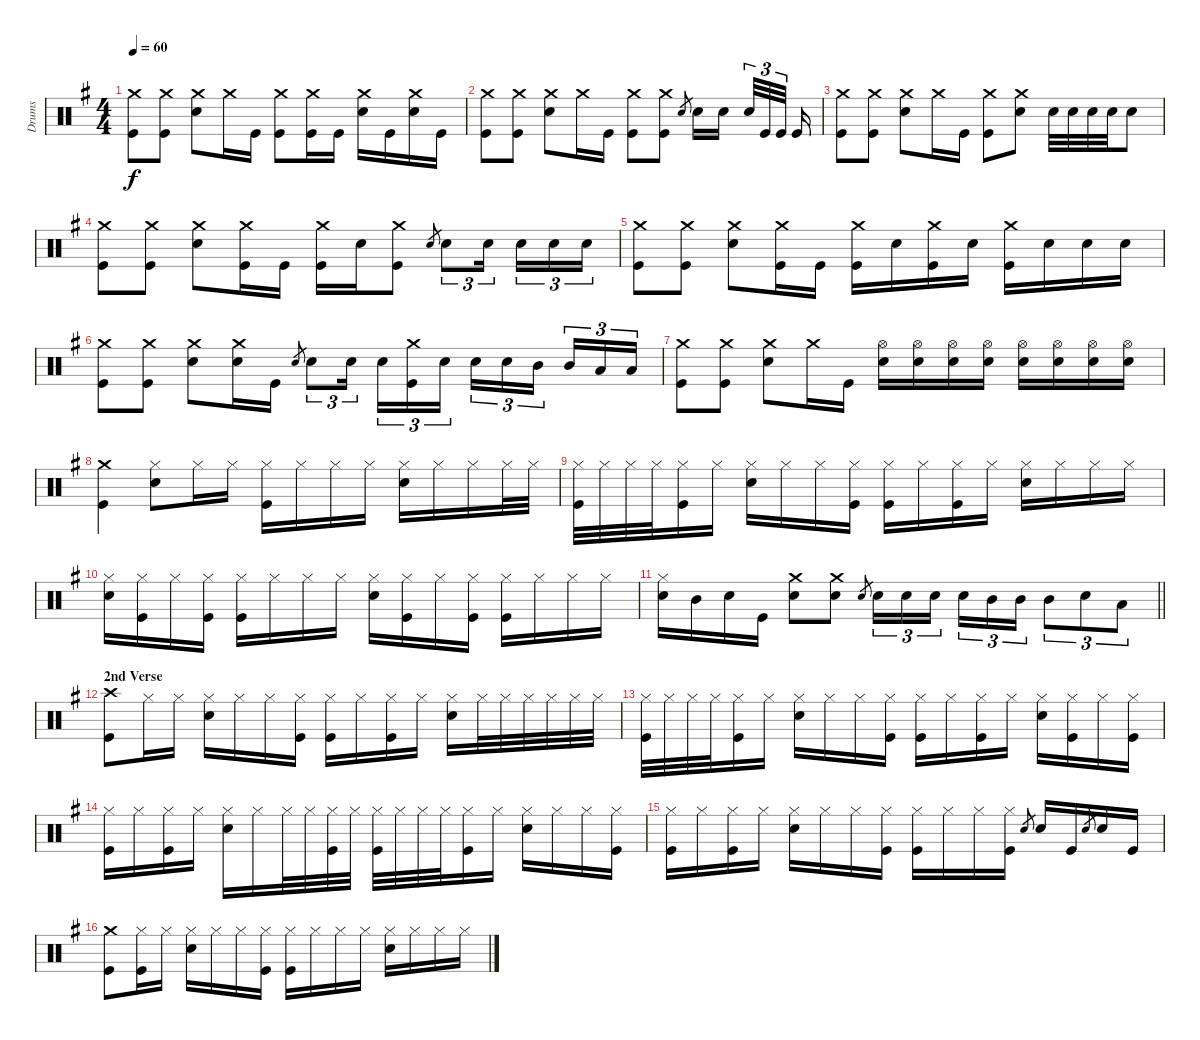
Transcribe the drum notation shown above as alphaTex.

\track ("Drums" "Drums") {instrument percussion}
\staff {score}
\articulation defaults
\ts (4 4)
\tempo 60
\clef neutral
\ks g
("Kick (hit)" "Crash medium (hit)").8{dy f} ("Kick (hit)" "Crash medium (hit)").8 ("Electric Snare (hit)" "Crash medium (hit)").8 "Crash medium (hit)".16 "Kick (hit)".16 ("Kick (hit)" "Crash medium (hit)").8 ("Kick (hit)" "Crash medium (hit)").16 "Kick (hit)".16 ("Electric Snare (hit)" "Crash medium (hit)").16 "Kick (hit)".16 ("Electric Snare (hit)" "Crash medium (hit)").16 "Kick (hit)".16 |
("Kick (hit)" "Crash medium (hit)").8 ("Kick (hit)" "Crash medium (hit)").8 ("Electric Snare (hit)" "Crash medium (hit)").8 "Crash medium (hit)".16 "Kick (hit)".16 ("Kick (hit)" "Crash medium (hit)").8 ("Kick (hit)" "Crash medium (hit)").8 "Electric Snare (hit)".8{gr} "Electric Snare (hit)".16 "Electric Snare (hit)".16{beam splitsecondary} "Electric Snare (hit)".32{tu (3 2)} "Kick (hit)".32{tu (3 2)} "Kick (hit)".32{tu (3 2) beam splitsecondary} "Kick (hit)".16 |
("Kick (hit)" "Crash medium (hit)").8 ("Kick (hit)" "Crash medium (hit)").8 ("Electric Snare (hit)" "Crash medium (hit)").8 "Crash medium (hit)".16 "Kick (hit)".16 ("Kick (hit)" "Crash medium (hit)").8 ("Electric Snare (hit)" "Crash medium (hit)").8 "Electric Snare (hit)".32 "Electric Snare (hit)".32 "Electric Snare (hit)".32 "Electric Snare (hit)".32 "Electric Snare (hit)".8 |
("Kick (hit)" "Crash medium (hit)").8 ("Kick (hit)" "Crash medium (hit)").8 ("Electric Snare (hit)" "Crash medium (hit)").8 ("Kick (hit)" "Crash medium (hit)").16 "Kick (hit)".16 ("Kick (hit)" "Crash medium (hit)").16 "Electric Snare (hit)".16 ("Kick (hit)" "Crash medium (hit)").8 "Electric Snare (hit)".8{gr} "Electric Snare (hit)".8{tu (3 2)} "Electric Snare (hit)".16{tu (3 2) beam splitsecondary} "Electric Snare (hit)".16{tu (3 2)} "Electric Snare (hit)".16{tu (3 2)} "Electric Snare (hit)".16{tu (3 2)} |
("Kick (hit)" "Crash medium (hit)").8 ("Kick (hit)" "Crash medium (hit)").8 ("Electric Snare (hit)" "Crash medium (hit)").8 ("Kick (hit)" "Crash medium (hit)").16 "Kick (hit)".16 ("Kick (hit)" "Crash medium (hit)").16 "Electric Snare (hit)".16 ("Kick (hit)" "Crash medium (hit)").16 "Electric Snare (hit)".16 ("Kick (hit)" "Crash medium (hit)").16 "Electric Snare (hit)".16 "Electric Snare (hit)".16 "Electric Snare (hit)".16 |
("Kick (hit)" "Crash medium (hit)").8 ("Kick (hit)" "Crash medium (hit)").8 ("Electric Snare (hit)" "Crash medium (hit)").8 ("Electric Snare (hit)" "Crash medium (hit)").16 "Kick (hit)".16 "Electric Snare (hit)".8{gr} "Electric Snare (hit)".8{tu (3 2)} "Electric Snare (hit)".16{tu (3 2) beam splitsecondary} "Electric Snare (hit)".16{tu (3 2)} ("Kick (hit)" "Crash medium (hit)").16{tu (3 2)} "Electric Snare (hit)".16{tu (3 2)} "Electric Snare (hit)".16{tu (3 2)} "Electric Snare (hit)".16{tu (3 2)} "Mid Tom (hit)".16{tu (3 2) beam splitsecondary} "Mid Tom (hit)".16{tu (3 2)} "Low Tom (hit)".16{tu (3 2)} "Low Tom (hit)".16{tu (3 2)} |
("Kick (hit)" "Crash medium (hit)").8 ("Kick (hit)" "Crash medium (hit)").8 ("Electric Snare (hit)" "Crash medium (hit)").8 "Crash medium (hit)".16 "Kick (hit)".16 ("Electric Snare (hit)" "Hi-Hat (open)").16 ("Electric Snare (hit)" "Hi-Hat (open)").16 ("Electric Snare (hit)" "Hi-Hat (open)").16 ("Electric Snare (hit)" "Hi-Hat (open)").16 ("Electric Snare (hit)" "Hi-Hat (open)").16 ("Electric Snare (hit)" "Hi-Hat (open)").16 ("Electric Snare (hit)" "Hi-Hat (open)").16 ("Electric Snare (hit)" "Hi-Hat (open)").16 |
("Kick (hit)" "Crash medium (hit)").4 ("Electric Snare (hit)" "Hi-Hat (closed)").8 "Hi-Hat (closed)".16 "Hi-Hat (closed)".16 ("Kick (hit)" "Hi-Hat (closed)").16 "Hi-Hat (closed)".16 "Hi-Hat (closed)".16 "Hi-Hat (closed)".16 ("Electric Snare (hit)" "Hi-Hat (closed)").16 "Hi-Hat (closed)".16 "Hi-Hat (closed)".16 "Hi-Hat (closed)".32 "Hi-Hat (closed)".32 |
("Kick (hit)" "Hi-Hat (closed)").32 "Hi-Hat (closed)".32 "Hi-Hat (closed)".32 "Hi-Hat (closed)".32 ("Kick (hit)" "Hi-Hat (closed)").16 "Hi-Hat (closed)".16 ("Electric Snare (hit)" "Hi-Hat (closed)").16 "Hi-Hat (closed)".16 "Hi-Hat (closed)".16 ("Kick (hit)" "Hi-Hat (closed)").16 ("Kick (hit)" "Hi-Hat (closed)").16 "Hi-Hat (closed)".16 ("Kick (hit)" "Hi-Hat (closed)").16 "Hi-Hat (closed)".16 ("Electric Snare (hit)" "Hi-Hat (closed)").16 "Hi-Hat (closed)".16 "Hi-Hat (closed)".16 "Hi-Hat (closed)".16 |
("Electric Snare (hit)" "Hi-Hat (closed)").16 ("Kick (hit)" "Hi-Hat (closed)").16 "Hi-Hat (closed)".16 ("Kick (hit)" "Hi-Hat (closed)").16 ("Kick (hit)" "Hi-Hat (closed)").16 "Hi-Hat (closed)".16 "Hi-Hat (closed)".16 "Hi-Hat (closed)".16 ("Electric Snare (hit)" "Hi-Hat (closed)").16 ("Kick (hit)" "Hi-Hat (closed)").16 "Hi-Hat (closed)".16 ("Kick (hit)" "Hi-Hat (closed)").16 ("Kick (hit)" "Hi-Hat (closed)").16 "Hi-Hat (closed)".16 "Hi-Hat (closed)".16 "Hi-Hat (closed)".16 |
\barLineRight lightlight
("Electric Snare (hit)" "Hi-Hat (closed)").16 "Mid Tom (hit)".16 "Electric Snare (hit)".16 "Kick (hit)".16 ("Electric Snare (hit)" "Crash medium (hit)").8 ("Electric Snare (hit)" "Crash medium (hit)").8 "Electric Snare (hit)".8{gr} "Electric Snare (hit)".16{tu (3 2)} "Electric Snare (hit)".16{tu (3 2)} "Electric Snare (hit)".16{tu (3 2) beam splitsecondary} "Electric Snare (hit)".16{tu (3 2)} "Mid Tom (hit)".16{tu (3 2)} "Mid Tom (hit)".16{tu (3 2)} "Mid Tom (hit)".8{tu (3 2)} "Electric Snare (hit)".8{tu (3 2)} "Low Tom (hit)".8{tu (3 2)} |
\section ("" "2nd Verse")
("Kick (hit)" "Crash high (hit)").8 "Hi-Hat (closed)".16 "Hi-Hat (closed)".16 ("Electric Snare (hit)" "Hi-Hat (closed)").16 "Hi-Hat (closed)".16 "Hi-Hat (closed)".16 ("Kick (hit)" "Hi-Hat (closed)").16 ("Kick (hit)" "Hi-Hat (closed)").16 "Hi-Hat (closed)".16 ("Kick (hit)" "Hi-Hat (closed)").16 "Hi-Hat (closed)".16 ("Electric Snare (hit)" "Hi-Hat (closed)").16 "Hi-Hat (closed)".32 "Hi-Hat (closed)".32 "Hi-Hat (closed)".32 "Hi-Hat (closed)".32 "Hi-Hat (closed)".32 "Hi-Hat (closed)".32 |
("Kick (hit)" "Hi-Hat (closed)").32 "Hi-Hat (closed)".32 "Hi-Hat (closed)".32 "Hi-Hat (closed)".32 ("Kick (hit)" "Hi-Hat (closed)").16 "Hi-Hat (closed)".16 ("Electric Snare (hit)" "Hi-Hat (closed)").16 "Hi-Hat (closed)".16 "Hi-Hat (closed)".16 ("Kick (hit)" "Hi-Hat (closed)").16 ("Kick (hit)" "Hi-Hat (closed)").16 "Hi-Hat (closed)".16 ("Kick (hit)" "Hi-Hat (closed)").16 "Hi-Hat (closed)".16 ("Electric Snare (hit)" "Hi-Hat (closed)").16 ("Kick (hit)" "Hi-Hat (closed)").16 "Hi-Hat (closed)".16 ("Kick (hit)" "Hi-Hat (closed)").16 |
("Kick (hit)" "Hi-Hat (closed)").16 "Hi-Hat (closed)".16 ("Kick (hit)" "Hi-Hat (closed)").16 "Hi-Hat (closed)".16 ("Electric Snare (hit)" "Hi-Hat (closed)").16 "Hi-Hat (closed)".16 "Hi-Hat (closed)".32 "Hi-Hat (closed)".32 ("Kick (hit)" "Hi-Hat (closed)").32 "Hi-Hat (closed)".32 ("Kick (hit)" "Hi-Hat (closed)").32 "Hi-Hat (closed)".32 "Hi-Hat (closed)".32 "Hi-Hat (closed)".32 ("Kick (hit)" "Hi-Hat (closed)").16 "Hi-Hat (closed)".16 ("Electric Snare (hit)" "Hi-Hat (closed)").16 "Hi-Hat (closed)".16 "Hi-Hat (closed)".16 ("Kick (hit)" "Hi-Hat (closed)").16 |
("Kick (hit)" "Hi-Hat (closed)").16 "Hi-Hat (closed)".16 ("Kick (hit)" "Hi-Hat (closed)").16 "Hi-Hat (closed)".16 ("Electric Snare (hit)" "Hi-Hat (closed)").16 "Hi-Hat (closed)".16 "Hi-Hat (closed)".16 ("Kick (hit)" "Hi-Hat (closed)").16 ("Kick (hit)" "Hi-Hat (closed)").16 "Hi-Hat (closed)".16 "Hi-Hat (closed)".16 ("Kick (hit)" "Hi-Hat (closed)").16 "Electric Snare (hit)".8{gr} "Electric Snare (hit)".16 "Kick (hit)".16 "Electric Snare (hit)".8{gr} "Electric Snare (hit)".16 "Kick (hit)".16 |
("Kick (hit)" "Crash medium (hit)").8 ("Kick (hit)" "Hi-Hat (closed)").16 "Hi-Hat (closed)".16 ("Electric Snare (hit)" "Hi-Hat (closed)").16 "Hi-Hat (closed)".16 "Hi-Hat (closed)".16 ("Kick (hit)" "Hi-Hat (closed)").16 ("Kick (hit)" "Hi-Hat (closed)").16 "Hi-Hat (closed)".16 "Hi-Hat (closed)".16 "Hi-Hat (closed)".16 ("Electric Snare (hit)" "Hi-Hat (closed)").16 "Hi-Hat (closed)".16 "Hi-Hat (closed)".16 "Hi-Hat (closed)".16
